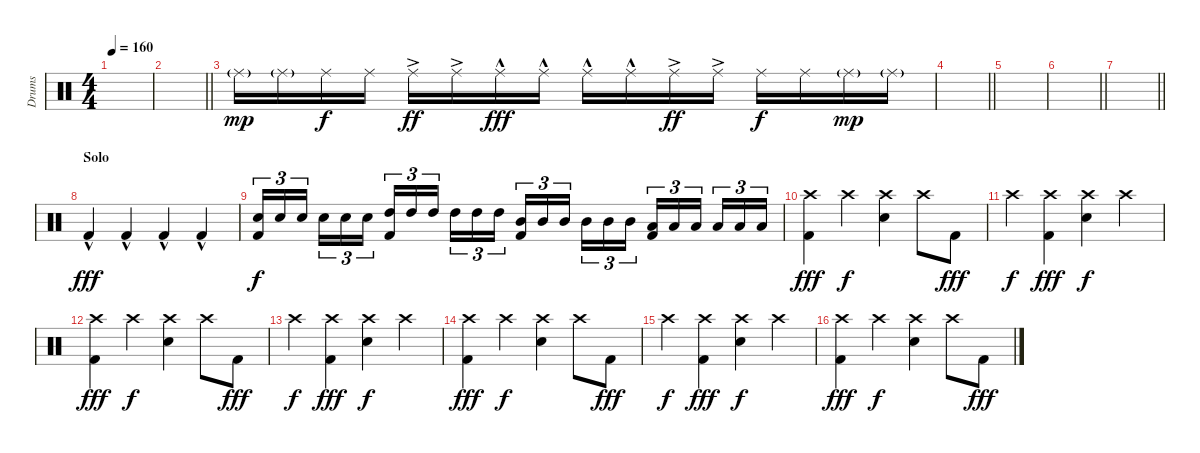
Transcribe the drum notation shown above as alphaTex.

\track ("Drums" "Drums") {instrument percussion}
\staff {score}
\articulation defaults
\ts (4 4)
\tempo 160
\clef neutral
\ks c
|
\barLineRight lightlight
|
"Ride (middle)"{g}.16{dy mp} "Ride (middle)"{g}.16 "Ride (middle)".16{dy f} "Ride (middle)".16 "Ride (middle)"{ac}.16{dy ff} "Ride (middle)"{ac}.16 "Ride (middle)"{hac}.16{dy fff} "Ride (middle)"{hac}.16 "Ride (middle)"{hac}.16 "Ride (middle)"{hac}.16 "Ride (middle)"{ac}.16{dy ff} "Ride (middle)"{ac}.16 "Ride (middle)".16{dy f} "Ride (middle)".16 "Ride (middle)"{g}.16{dy mp} "Ride (middle)"{g}.16 |
\barLineRight lightlight
|
|
\barLineRight lightlight
|
\barLineRight lightlight
|
\section ("" "Solo")
"Kick (hit) 2"{hac}.4{dy fff} "Kick (hit) 2"{hac}.4 "Kick (hit) 2"{hac}.4 "Kick (hit) 2"{hac}.4 |
("Electric Snare (hit)" "Kick (hit) 2").16{tu (3 2) dy f} "Electric Snare (hit)".16{tu (3 2)} "Electric Snare (hit)".16{tu (3 2) beam splitsecondary} "Electric Snare (hit)".16{tu (3 2)} "Electric Snare (hit)".16{tu (3 2)} "Electric Snare (hit)".16{tu (3 2)} ("High Tom (hit)" "Kick (hit) 2").16{tu (3 2)} "High Tom (hit)".16{tu (3 2)} "High Tom (hit)".16{tu (3 2) beam splitsecondary} "High Tom (hit)".16{tu (3 2)} "High Tom (hit)".16{tu (3 2)} "High Tom (hit)".16{tu (3 2)} ("Mid Tom (hit)" "Kick (hit) 2").16{tu (3 2)} "Mid Tom (hit)".16{tu (3 2)} "Mid Tom (hit)".16{tu (3 2) beam splitsecondary} "Mid Tom (hit)".16{tu (3 2)} "Mid Tom (hit)".16{tu (3 2)} "Mid Tom (hit)".16{tu (3 2)} ("Low Tom (hit)" "Kick (hit) 2").16{tu (3 2)} "Low Tom (hit)".16{tu (3 2)} "Low Tom (hit)".16{tu (3 2) beam splitsecondary} "Low Tom (hit)".16{tu (3 2)} "Low Tom (hit)".16{tu (3 2)} "Low Tom (hit)".16{tu (3 2)} |
("Crash high (hit)" "Kick (hit) 2").4{dy fff} "Crash high (hit)".4{dy f} ("Crash high (hit)" "Electric Snare (hit)").4 "Crash high (hit)".8 "Kick (hit) 2".8{dy fff} |
"Crash high (hit)".4{dy f} ("Crash high (hit)" "Kick (hit) 2").4{dy fff} ("Crash high (hit)" "Electric Snare (hit)").4{dy f} "Crash high (hit)".4 |
("Crash high (hit)" "Kick (hit) 2").4{dy fff} "Crash high (hit)".4{dy f} ("Crash high (hit)" "Electric Snare (hit)").4 "Crash high (hit)".8 "Kick (hit) 2".8{dy fff} |
"Crash high (hit)".4{dy f} ("Crash high (hit)" "Kick (hit) 2").4{dy fff} ("Crash high (hit)" "Electric Snare (hit)").4{dy f} "Crash high (hit)".4 |
("Crash high (hit)" "Kick (hit) 2").4{dy fff} "Crash high (hit)".4{dy f} ("Crash high (hit)" "Electric Snare (hit)").4 "Crash high (hit)".8 "Kick (hit) 2".8{dy fff} |
"Crash high (hit)".4{dy f} ("Crash high (hit)" "Kick (hit) 2").4{dy fff} ("Crash high (hit)" "Electric Snare (hit)").4{dy f} "Crash high (hit)".4 |
("Crash high (hit)" "Kick (hit) 2").4{dy fff} "Crash high (hit)".4{dy f} ("Crash high (hit)" "Electric Snare (hit)").4 "Crash high (hit)".8 "Kick (hit) 2".8{dy fff}
